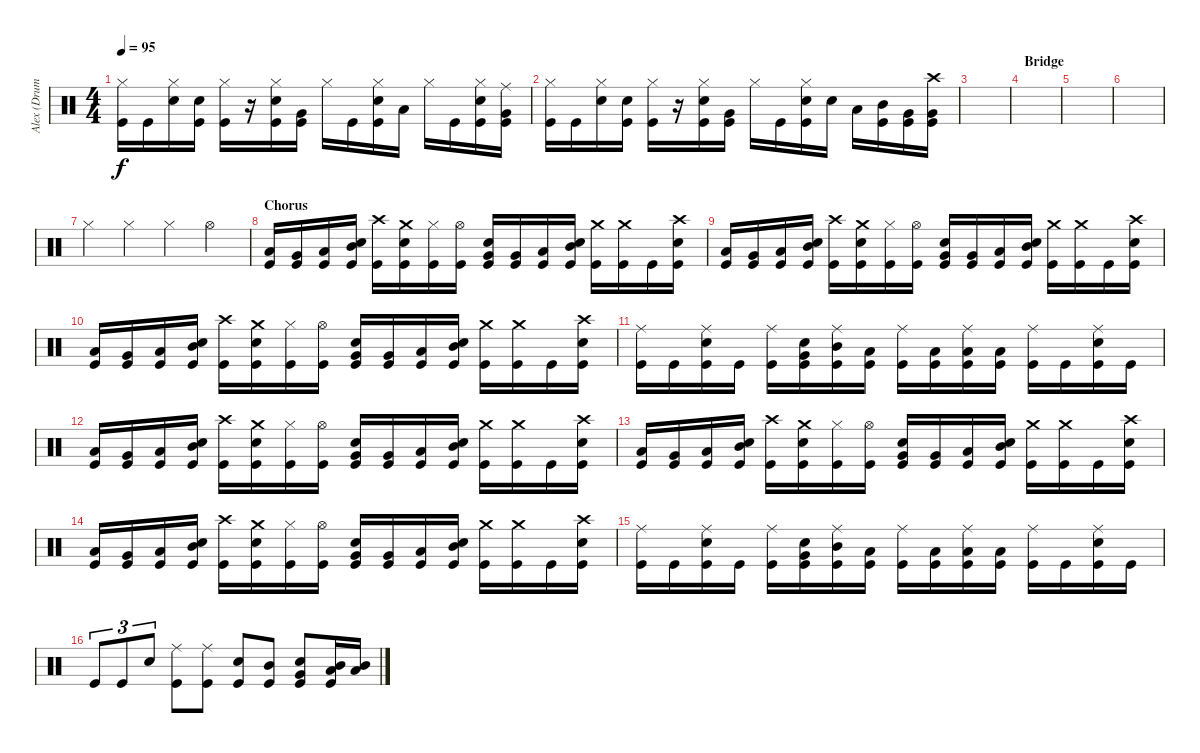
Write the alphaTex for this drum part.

\track ("Alex (Drums)" "Alex (Drum") {instrument percussion}
\staff {score}
\articulation defaults
\ts (4 4)
\tempo 95
\clef neutral
\ks c
("Hi-Hat (closed)" "Kick (hit)").16{dy f} "Kick (hit)".16 ("Hi-Hat (closed)" "Electric Snare (hit)").16 ("Electric Snare (hit)" "Kick (hit)").16 ("Hi-Hat (closed)" "Kick (hit)").16 r.16 ("Hi-Hat (closed)" "Electric Snare (hit)" "Kick (hit)").16 ("Very Low Tom (hit)" "Kick (hit)").16 "Hi-Hat (closed)".16 "Kick (hit)".16 ("Hi-Hat (closed)" "Electric Snare (hit)" "Kick (hit)").16 "Low Tom (hit)".16 "Hi-Hat (closed)".16 "Kick (hit)".16 ("Hi-Hat (closed)" "Electric Snare (hit)" "Kick (hit)").16 ("Ride (middle)" "Very Low Tom (hit)" "Kick (hit)").16 |
("Hi-Hat (closed)" "Kick (hit)").16 "Kick (hit)".16 ("Hi-Hat (closed)" "Electric Snare (hit)").16 ("Electric Snare (hit)" "Kick (hit)").16 ("Hi-Hat (closed)" "Kick (hit)").16 r.16 ("Hi-Hat (closed)" "Electric Snare (hit)" "Kick (hit)").16 ("Very Low Tom (hit)" "Kick (hit)").16 "Hi-Hat (closed)".16 "Kick (hit)".16 ("Hi-Hat (closed)" "Electric Snare (hit)" "Kick (hit)").16 "Electric Snare (hit)".16 "Low Tom (hit)".16 ("Mid Tom (hit)" "Kick (hit)").16 ("Very Low Tom (hit)" "Kick (hit)").16 ("Crash high (hit)" "Very Low Tom (hit)" "Kick (hit)").16 |
|
\section ("" "Bridge")
|
|
|
"Hi-Hat (closed)".4 "Hi-Hat (closed)".4 "Hi-Hat (closed)".4 "Hi-Hat (open)".4 |
\section ("" "Chorus")
("Low Tom (hit)" "Kick (hit)").16 ("Very Low Tom (hit)" "Kick (hit)").16 ("Low Floor Tom (hit)" "Kick (hit)").16 ("Mid Tom (hit)" "Electric Snare (hit)" "Kick (hit)").16 ("Crash high (hit)" "Kick (hit)").16 ("Crash medium (hit)" "Electric Snare (hit)" "Kick (hit)").16 ("Hi-Hat (closed)" "Kick (hit)").16 ("Hi-Hat (open)" "Kick (hit)").16 ("Very Low Tom (hit)" "Electric Snare (hit)" "Kick (hit)").16 ("Very Low Tom (hit)" "Kick (hit)").16 ("Low Tom (hit)" "Kick (hit)").16 ("Mid Tom (hit)" "Electric Snare (hit)" "Kick (hit)").16 ("Crash medium (hit)" "Kick (hit)").16 ("Crash medium (hit)" "Kick (hit)").16 "Kick (hit)".16 ("Crash high (hit)" "Electric Snare (hit)" "Kick (hit)").16 |
("Low Tom (hit)" "Kick (hit)").16 ("Very Low Tom (hit)" "Kick (hit)").16 ("Low Floor Tom (hit)" "Kick (hit)").16 ("Mid Tom (hit)" "Electric Snare (hit)" "Kick (hit)").16 ("Crash high (hit)" "Kick (hit)").16 ("Crash medium (hit)" "Electric Snare (hit)" "Kick (hit)").16 ("Hi-Hat (closed)" "Kick (hit)").16 ("Hi-Hat (open)" "Kick (hit)").16 ("Very Low Tom (hit)" "Electric Snare (hit)" "Kick (hit)").16 ("Very Low Tom (hit)" "Kick (hit)").16 ("Low Tom (hit)" "Kick (hit)").16 ("Mid Tom (hit)" "Electric Snare (hit)" "Kick (hit)").16 ("Crash medium (hit)" "Kick (hit)").16 ("Crash medium (hit)" "Kick (hit)").16 "Kick (hit)".16 ("Crash high (hit)" "Electric Snare (hit)" "Kick (hit)").16 |
("Low Tom (hit)" "Kick (hit)").16 ("Very Low Tom (hit)" "Kick (hit)").16 ("Low Floor Tom (hit)" "Kick (hit)").16 ("Mid Tom (hit)" "Electric Snare (hit)" "Kick (hit)").16 ("Crash high (hit)" "Kick (hit)").16 ("Crash medium (hit)" "Electric Snare (hit)" "Kick (hit)").16 ("Hi-Hat (closed)" "Kick (hit)").16 ("Hi-Hat (open)" "Kick (hit)").16 ("Very Low Tom (hit)" "Electric Snare (hit)" "Kick (hit)").16 ("Very Low Tom (hit)" "Kick (hit)").16 ("Low Tom (hit)" "Kick (hit)").16 ("Mid Tom (hit)" "Electric Snare (hit)" "Kick (hit)").16 ("Crash medium (hit)" "Kick (hit)").16 ("Crash medium (hit)" "Kick (hit)").16 "Kick (hit)".16 ("Crash high (hit)" "Electric Snare (hit)" "Kick (hit)").16 |
("Ride (middle)" "Kick (hit)").16 "Kick (hit)".16 ("Ride (middle)" "Electric Snare (hit)" "Kick (hit)").16 "Kick (hit)".16 ("Ride (middle)" "Kick (hit)").16 ("Very Low Tom (hit)" "Electric Snare (hit)" "Kick (hit)").16 ("Ride (middle)" "Mid Tom (hit)" "Kick (hit)").16 ("Low Tom (hit)" "Kick (hit)").16 ("Ride (middle)" "Kick (hit)").16 ("Low Tom (hit)" "Kick (hit)").16 ("Ride (middle)" "Low Tom (hit)" "Kick (hit)").16 ("Low Tom (hit)" "Kick (hit)").16 ("Ride (middle)" "Kick (hit)").16 "Kick (hit)".16 ("Ride (middle)" "Electric Snare (hit)" "Kick (hit)").16 "Kick (hit)".16 |
("Low Tom (hit)" "Kick (hit)").16 ("Very Low Tom (hit)" "Kick (hit)").16 ("Low Floor Tom (hit)" "Kick (hit)").16 ("Mid Tom (hit)" "Electric Snare (hit)" "Kick (hit)").16 ("Crash high (hit)" "Kick (hit)").16 ("Crash medium (hit)" "Electric Snare (hit)" "Kick (hit)").16 ("Hi-Hat (closed)" "Kick (hit)").16 ("Hi-Hat (open)" "Kick (hit)").16 ("Very Low Tom (hit)" "Electric Snare (hit)" "Kick (hit)").16 ("Very Low Tom (hit)" "Kick (hit)").16 ("Low Tom (hit)" "Kick (hit)").16 ("Mid Tom (hit)" "Electric Snare (hit)" "Kick (hit)").16 ("Crash medium (hit)" "Kick (hit)").16 ("Crash medium (hit)" "Kick (hit)").16 "Kick (hit)".16 ("Crash high (hit)" "Electric Snare (hit)" "Kick (hit)").16 |
("Low Tom (hit)" "Kick (hit)").16 ("Very Low Tom (hit)" "Kick (hit)").16 ("Low Floor Tom (hit)" "Kick (hit)").16 ("Mid Tom (hit)" "Electric Snare (hit)" "Kick (hit)").16 ("Crash high (hit)" "Kick (hit)").16 ("Crash medium (hit)" "Electric Snare (hit)" "Kick (hit)").16 ("Hi-Hat (closed)" "Kick (hit)").16 ("Hi-Hat (open)" "Kick (hit)").16 ("Very Low Tom (hit)" "Electric Snare (hit)" "Kick (hit)").16 ("Very Low Tom (hit)" "Kick (hit)").16 ("Low Tom (hit)" "Kick (hit)").16 ("Mid Tom (hit)" "Electric Snare (hit)" "Kick (hit)").16 ("Crash medium (hit)" "Kick (hit)").16 ("Crash medium (hit)" "Kick (hit)").16 "Kick (hit)".16 ("Crash high (hit)" "Electric Snare (hit)" "Kick (hit)").16 |
("Low Tom (hit)" "Kick (hit)").16 ("Very Low Tom (hit)" "Kick (hit)").16 ("Low Floor Tom (hit)" "Kick (hit)").16 ("Mid Tom (hit)" "Electric Snare (hit)" "Kick (hit)").16 ("Crash high (hit)" "Kick (hit)").16 ("Crash medium (hit)" "Electric Snare (hit)" "Kick (hit)").16 ("Hi-Hat (closed)" "Kick (hit)").16 ("Hi-Hat (open)" "Kick (hit)").16 ("Very Low Tom (hit)" "Electric Snare (hit)" "Kick (hit)").16 ("Very Low Tom (hit)" "Kick (hit)").16 ("Low Tom (hit)" "Kick (hit)").16 ("Mid Tom (hit)" "Electric Snare (hit)" "Kick (hit)").16 ("Crash medium (hit)" "Kick (hit)").16 ("Crash medium (hit)" "Kick (hit)").16 "Kick (hit)".16 ("Crash high (hit)" "Electric Snare (hit)" "Kick (hit)").16 |
("Ride (middle)" "Kick (hit)").16 "Kick (hit)".16 ("Ride (middle)" "Electric Snare (hit)" "Kick (hit)").16 "Kick (hit)".16 ("Ride (middle)" "Kick (hit)").16 ("Very Low Tom (hit)" "Electric Snare (hit)" "Kick (hit)").16 ("Ride (middle)" "Mid Tom (hit)" "Kick (hit)").16 ("Low Tom (hit)" "Kick (hit)").16 ("Ride (middle)" "Kick (hit)").16 ("Low Tom (hit)" "Kick (hit)").16 ("Ride (middle)" "Low Tom (hit)" "Kick (hit)").16 ("Low Tom (hit)" "Kick (hit)").16 ("Ride (middle)" "Kick (hit)").16 "Kick (hit)".16 ("Ride (middle)" "Electric Snare (hit)" "Kick (hit)").16 "Kick (hit)".16 |
"Kick (hit)".8{tu (3 2)} "Kick (hit)".8{tu (3 2)} "Electric Snare (hit)".8{tu (3 2)} ("Ride (middle)" "Kick (hit)").8 ("Ride (middle)" "Kick (hit)").8 ("Electric Snare (hit)" "Kick (hit)").8 ("Mid Tom (hit)" "Kick (hit)").8 ("Very Low Tom (hit)" "Electric Snare (hit)" "Kick (hit)").8 ("Low Floor Tom (hit)" "Mid Tom (hit)" "Kick (hit)").16 ("Low Floor Tom (hit)" "Mid Tom (hit)").16
